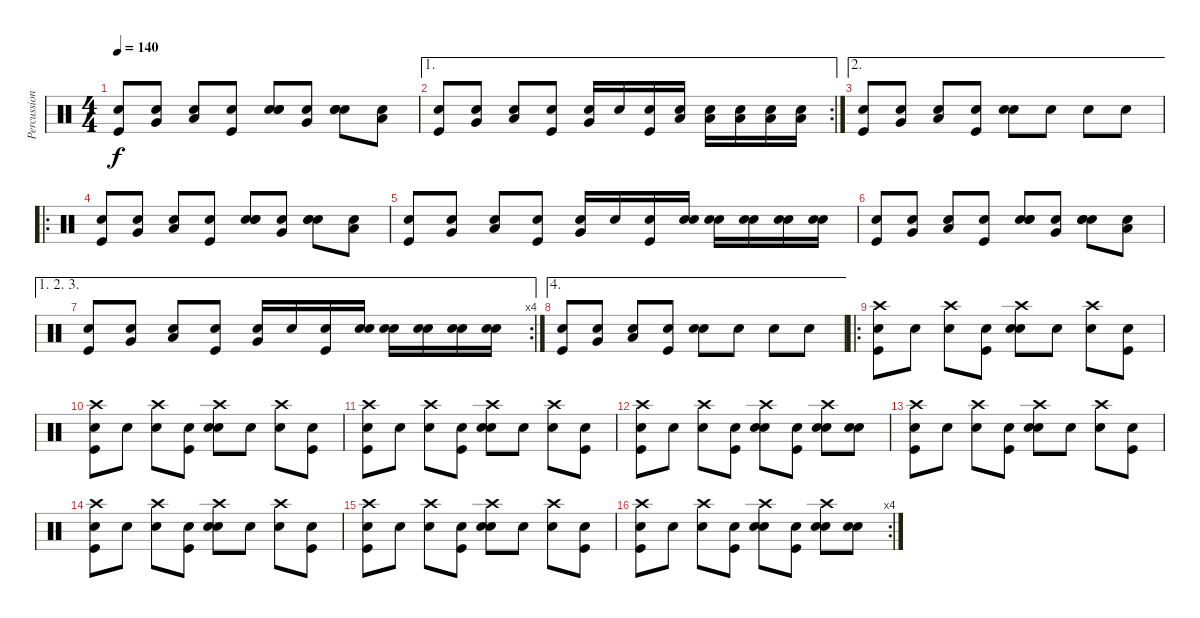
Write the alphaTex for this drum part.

\track ("Percussion" "Percussion") {instrument percussion}
\staff {score}
\articulation defaults
\ts (4 4)
\tempo 140
\clef neutral
\ks c
("Snare (hit)" "Kick (hit)").8{dy f} ("Snare (hit)" "Very Low Tom (hit)").8 ("Snare (hit)" "Low Floor Tom (hit)").8 ("Snare (hit)" "Kick (hit)").8 ("Snare (hit)" "Snare (hit) 2" "Snare (hit) 2").8 ("Snare (hit)" "Very Low Tom (hit)").8 ("Snare (hit)" "Snare (hit) 2" "Snare (hit) 2").8 ("Snare (hit)" "Low Floor Tom (hit)").8 |
\ae 1
\rc 2
("Snare (hit)" "Kick (hit)").8 ("Snare (hit)" "Very Low Tom (hit)").8 ("Snare (hit)" "Low Floor Tom (hit)").8 ("Snare (hit)" "Kick (hit)").8 ("Snare (hit)" "Very Low Tom (hit)").16 "Snare (hit)".16 ("Snare (hit)" "Kick (hit)").16 ("Snare (hit)" "Low Floor Tom (hit)").16 ("Snare (hit)" "Low Floor Tom (hit)").16 ("Snare (hit)" "Low Floor Tom (hit)").16 ("Snare (hit)" "Low Floor Tom (hit)").16 ("Snare (hit)" "Low Floor Tom (hit)").16 |
\ae 2
("Snare (hit)" "Kick (hit)").8 ("Snare (hit)" "Very Low Tom (hit)").8 ("Snare (hit)" "Low Floor Tom (hit)").8 ("Snare (hit)" "Kick (hit)").8 ("Snare (hit)" "Snare (hit) 2").8 "Snare (hit)".8 "Snare (hit)".8 "Snare (hit)".8 |
\ro
("Snare (hit)" "Kick (hit)").8 ("Snare (hit)" "Very Low Tom (hit)").8 ("Snare (hit)" "Low Floor Tom (hit)").8 ("Snare (hit)" "Kick (hit)").8 ("Snare (hit)" "Snare (hit) 2" "Snare (hit) 2").8 ("Snare (hit)" "Very Low Tom (hit)").8 ("Snare (hit)" "Snare (hit) 2" "Snare (hit) 2").8 ("Snare (hit)" "Low Floor Tom (hit)").8 |
("Snare (hit)" "Kick (hit)").8 ("Snare (hit)" "Very Low Tom (hit)").8 ("Snare (hit)" "Low Floor Tom (hit)").8 ("Snare (hit)" "Kick (hit)").8 ("Snare (hit)" "Very Low Tom (hit)").16 "Snare (hit)".16 ("Snare (hit)" "Kick (hit)").16 ("Snare (hit)" "Snare (hit) 2").16 ("Snare (hit)" "Snare (hit) 2").16 ("Snare (hit)" "Snare (hit) 2").16 ("Snare (hit)" "Snare (hit) 2").16 ("Snare (hit)" "Snare (hit) 2").16 |
("Snare (hit)" "Kick (hit)").8 ("Snare (hit)" "Very Low Tom (hit)").8 ("Snare (hit)" "Low Floor Tom (hit)").8 ("Snare (hit)" "Kick (hit)").8 ("Snare (hit)" "Snare (hit) 2" "Snare (hit) 2").8 ("Snare (hit)" "Very Low Tom (hit)").8 ("Snare (hit)" "Snare (hit) 2" "Snare (hit) 2").8 ("Snare (hit)" "Low Floor Tom (hit)").8 |
\ae (1 2 3)
\rc 4
("Snare (hit)" "Kick (hit)").8 ("Snare (hit)" "Very Low Tom (hit)").8 ("Snare (hit)" "Low Floor Tom (hit)").8 ("Snare (hit)" "Kick (hit)").8 ("Snare (hit)" "Very Low Tom (hit)").16 "Snare (hit)".16 ("Snare (hit)" "Kick (hit)").16 ("Snare (hit)" "Snare (hit) 2").16 ("Snare (hit)" "Snare (hit) 2").16 ("Snare (hit)" "Snare (hit) 2").16 ("Snare (hit)" "Snare (hit) 2").16 ("Snare (hit)" "Snare (hit) 2").16 |
\ae 4
("Snare (hit)" "Kick (hit)").8 ("Snare (hit)" "Very Low Tom (hit)").8 ("Snare (hit)" "Low Floor Tom (hit)").8 ("Snare (hit)" "Kick (hit)").8 ("Snare (hit)" "Snare (hit) 2").8 "Snare (hit)".8 "Snare (hit)".8 "Snare (hit)".8 |
\ro
("Snare (hit)" "Crash high (hit)" "Kick (hit)").8 "Snare (hit)".8 ("Snare (hit)" "Crash high (hit)").8 ("Snare (hit)" "Kick (hit)").8 ("Snare (hit)" "Crash high (hit)" "Snare (hit) 2").8 "Snare (hit)".8 ("Snare (hit)" "Crash high (hit)").8 ("Snare (hit)" "Kick (hit)").8 |
("Snare (hit)" "Crash high (hit)" "Kick (hit)").8 "Snare (hit)".8 ("Snare (hit)" "Crash high (hit)").8 ("Snare (hit)" "Kick (hit)").8 ("Snare (hit)" "Crash high (hit)" "Snare (hit) 2").8 "Snare (hit)".8 ("Snare (hit)" "Crash high (hit)").8 ("Snare (hit)" "Kick (hit)").8 |
("Snare (hit)" "Crash high (hit)" "Kick (hit)").8 "Snare (hit)".8 ("Snare (hit)" "Crash high (hit)").8 ("Snare (hit)" "Kick (hit)").8 ("Snare (hit)" "Crash high (hit)" "Snare (hit) 2").8 "Snare (hit)".8 ("Snare (hit)" "Crash high (hit)").8 ("Snare (hit)" "Kick (hit)").8 |
("Snare (hit)" "Crash high (hit)" "Kick (hit)").8 "Snare (hit)".8 ("Snare (hit)" "Crash high (hit)").8 ("Snare (hit)" "Kick (hit)").8 ("Snare (hit)" "Crash high (hit)" "Snare (hit) 2").8 ("Snare (hit)" "Kick (hit)").8 ("Snare (hit)" "Crash high (hit)" "Snare (hit) 2").8 ("Snare (hit)" "Snare (hit) 2").8 |
("Snare (hit)" "Crash high (hit)" "Kick (hit)").8 "Snare (hit)".8 ("Snare (hit)" "Crash high (hit)").8 ("Snare (hit)" "Kick (hit)").8 ("Snare (hit)" "Crash high (hit)" "Snare (hit) 2").8 "Snare (hit)".8 ("Snare (hit)" "Crash high (hit)").8 ("Snare (hit)" "Kick (hit)").8 |
("Snare (hit)" "Crash high (hit)" "Kick (hit)").8 "Snare (hit)".8 ("Snare (hit)" "Crash high (hit)").8 ("Snare (hit)" "Kick (hit)").8 ("Snare (hit)" "Crash high (hit)" "Snare (hit) 2").8 "Snare (hit)".8 ("Snare (hit)" "Crash high (hit)").8 ("Snare (hit)" "Kick (hit)").8 |
("Snare (hit)" "Crash high (hit)" "Kick (hit)").8 "Snare (hit)".8 ("Snare (hit)" "Crash high (hit)").8 ("Snare (hit)" "Kick (hit)").8 ("Snare (hit)" "Crash high (hit)" "Snare (hit) 2").8 "Snare (hit)".8 ("Snare (hit)" "Crash high (hit)").8 ("Snare (hit)" "Kick (hit)").8 |
\rc 4
("Snare (hit)" "Crash high (hit)" "Kick (hit)").8 "Snare (hit)".8 ("Snare (hit)" "Crash high (hit)").8 ("Snare (hit)" "Kick (hit)").8 ("Snare (hit)" "Crash high (hit)" "Snare (hit) 2").8 ("Snare (hit)" "Kick (hit)").8 ("Snare (hit)" "Crash high (hit)" "Snare (hit) 2").8 ("Snare (hit)" "Snare (hit) 2").8
